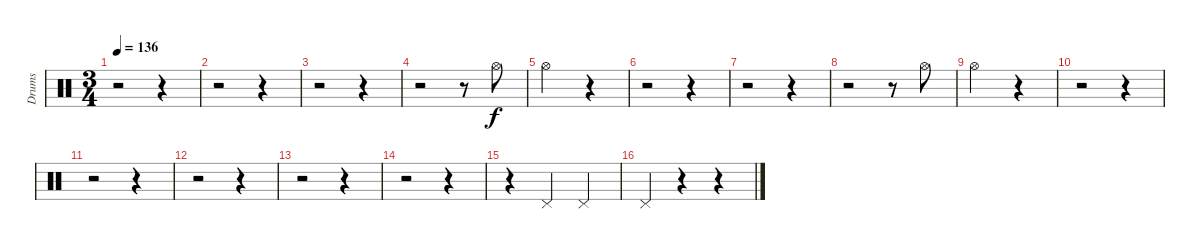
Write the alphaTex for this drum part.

\track ("Drums" "Drums") {instrument percussion}
\staff {score}
\articulation defaults
\ts (3 4)
\tempo 136
\clef neutral
\ks c
r.2{dy f} r.4 |
r.2 r.4 |
r.2 r.4 |
r.2 r.8 "Hi-Hat (open)".8 |
"Hi-Hat (open)".2 r.4 |
r.2 r.4 |
r.2 r.4 |
r.2 r.8 "Hi-Hat (open)".8 |
"Hi-Hat (open)".2 r.4 |
r.2 r.4 |
r.2 r.4 |
r.2 r.4 |
r.2 r.4 |
r.2 r.4 |
r.4 "Pedal Hi-Hat (hit)".4 "Pedal Hi-Hat (hit)".4 |
"Pedal Hi-Hat (hit)".4 r.4 r.4
